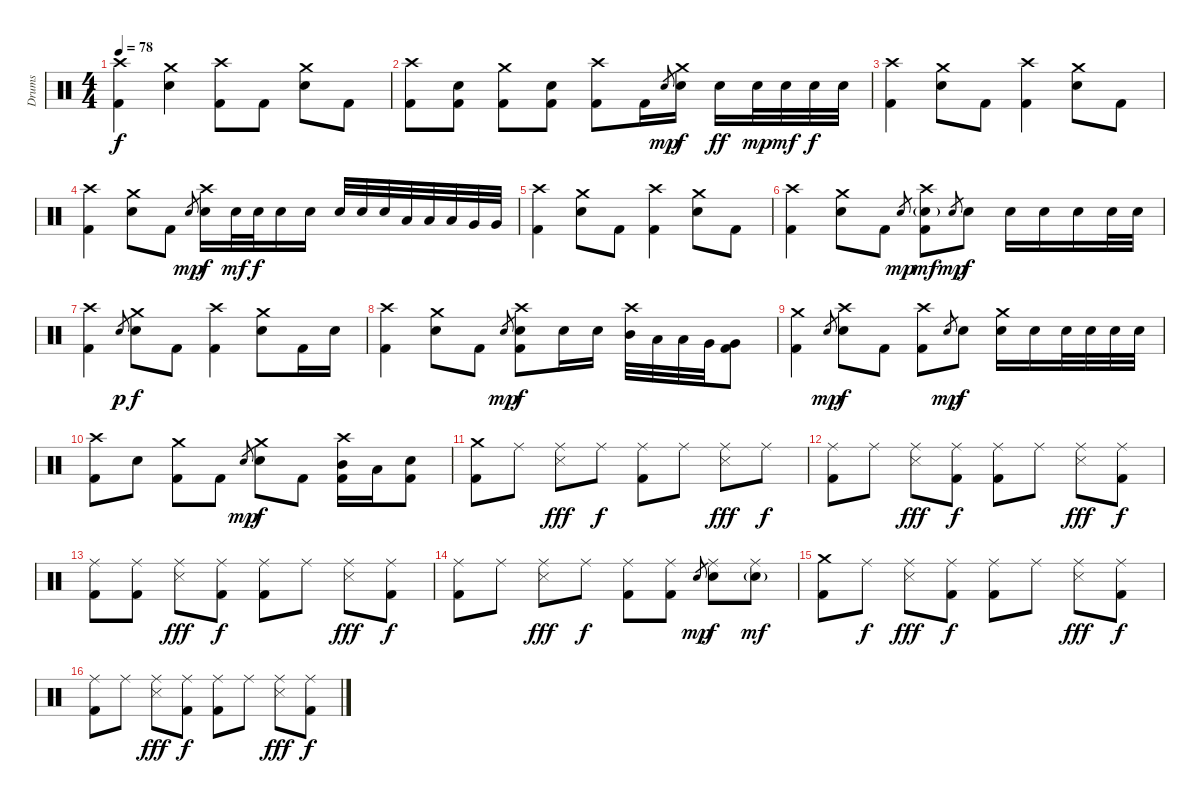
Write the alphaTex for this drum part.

\track ("Drums" "Drums") {instrument percussion}
\staff {score}
\articulation defaults
\ts (4 4)
\tempo 78
\clef neutral
\ks c
("Crash high (hit)" "Kick (hit) 2").4{dy f} ("Crash medium (hit)" "Electric Snare (hit)").4 ("Crash high (hit)" "Kick (hit) 2").8 "Kick (hit) 2".8 ("Crash medium (hit)" "Electric Snare (hit)").8 "Kick (hit) 2".8 |
("Crash high (hit)" "Kick (hit) 2").8 ("Electric Snare (hit)" "Kick (hit) 2").8 ("Crash medium (hit)" "Kick (hit) 2").8 ("Electric Snare (hit)" "Kick (hit) 2").8 ("Crash high (hit)" "Kick (hit) 2").8 "Kick (hit) 2".16 "Electric Snare (hit)".8{gr dy mp} ("Crash medium (hit)" "Electric Snare (hit)").16{dy f} "Electric Snare (hit)".16{dy ff} "Electric Snare (hit)".32{dy mp} "Electric Snare (hit)".32{dy mf} "Electric Snare (hit)".32{dy f} "Electric Snare (hit)".32 |
("Crash high (hit)" "Kick (hit) 2").4 ("Crash medium (hit)" "Electric Snare (hit)").8 "Kick (hit) 2".8 ("Crash high (hit)" "Kick (hit) 2").4 ("Crash medium (hit)" "Electric Snare (hit)").8 "Kick (hit) 2".8 |
("Crash high (hit)" "Kick (hit) 2").4 ("Crash medium (hit)" "Electric Snare (hit)").8 "Kick (hit) 2".8 "Electric Snare (hit)".8{gr dy mp} ("Crash high (hit)" "Electric Snare (hit)").16{dy f} "Electric Snare (hit)".32{dy mf} "Electric Snare (hit)".32{dy f} "Electric Snare (hit)".16 "Electric Snare (hit)".16 "Electric Snare (hit)".32 "Electric Snare (hit)".32 "Electric Snare (hit)".32 "Low Tom (hit)".32 "Low Tom (hit)".32 "Low Tom (hit)".32 "Very Low Tom (hit)".32 "Very Low Tom (hit)".32 |
("Crash high (hit)" "Kick (hit) 2").4 ("Crash medium (hit)" "Electric Snare (hit)").8 "Kick (hit) 2".8 ("Crash high (hit)" "Kick (hit) 2").4 ("Crash medium (hit)" "Electric Snare (hit)").8 "Kick (hit) 2".8 |
("Crash high (hit)" "Kick (hit) 2").4 ("Crash medium (hit)" "Electric Snare (hit)").8 "Kick (hit) 2".8 "Electric Snare (hit)".8{gr dy mp} ("Crash high (hit)" "Electric Snare (hit)"{g} "Kick (hit) 2").8{dy mf} "Electric Snare (hit)".8{gr dy mp} "Electric Snare (hit)".8{dy f} "Electric Snare (hit)".16 "Electric Snare (hit)".16 "Electric Snare (hit)".16 "Electric Snare (hit)".32 "Electric Snare (hit)".32 |
("Crash high (hit)" "Kick (hit) 2").4 "Electric Snare (hit)".8{gr dy p} ("Crash medium (hit)" "Electric Snare (hit)").8{dy f} "Kick (hit) 2".8 ("Crash high (hit)" "Kick (hit) 2").4 ("Crash medium (hit)" "Electric Snare (hit)").8 "Kick (hit) 2".16 "Electric Snare (hit)".16 |
("Crash high (hit)" "Kick (hit) 2").4 ("Crash medium (hit)" "Electric Snare (hit)").8 "Kick (hit) 2".8 "Electric Snare (hit)".8{gr dy mp} ("Crash high (hit)" "Electric Snare (hit)" "Kick (hit) 2").8{dy f} "Electric Snare (hit)".16 "Electric Snare (hit)".16 ("Crash high (hit)" "Mid Tom (hit)").32 "Low Tom (hit)".32 "Low Tom (hit)".32 "Very Low Tom (hit)".32 ("Very Low Tom (hit)" "Kick (hit) 2").8 |
("Crash medium (hit)" "Kick (hit) 2").4 "Electric Snare (hit)".8{gr dy mp} ("Crash high (hit)" "Electric Snare (hit)").8{dy f} "Kick (hit) 2".8 ("Crash high (hit)" "Kick (hit) 2").8 "Electric Snare (hit)".8{gr dy mp} "Electric Snare (hit)".8{dy f} ("Crash medium (hit)" "Electric Snare (hit)").16 "Electric Snare (hit)".16 "Electric Snare (hit)".32 "Electric Snare (hit)".32 "Electric Snare (hit)".32 "Electric Snare (hit)".32 |
("Crash high (hit)" "Kick (hit) 2").8 "Electric Snare (hit)".8 ("Crash medium (hit)" "Kick (hit) 2").8 "Kick (hit) 2".8 "Electric Snare (hit)".8{gr dy mp} ("Crash medium (hit)" "Electric Snare (hit)").8{dy f} "Kick (hit) 2".8 ("Crash high (hit)" "Mid Tom (hit)" "Kick (hit) 2").16 "Low Tom (hit)".16 ("Electric Snare (hit)" "Kick (hit) 2").8 |
("Crash medium (hit)" "Kick (hit) 2").8{volume 8} "Ride (middle)".8 ("Ride (middle)" "Metronome (hit)").8{dy fff} "Ride (middle)".8{dy f} ("Ride (middle)" "Kick (hit) 2").8 "Ride (middle)".8 ("Ride (middle)" "Metronome (hit)").8{dy fff} "Ride (middle)".8{dy f} |
("Ride (middle)" "Kick (hit) 2").8 "Ride (middle)".8 ("Ride (middle)" "Metronome (hit)").8{dy fff} ("Ride (middle)" "Kick (hit) 2").8{dy f} ("Ride (middle)" "Kick (hit) 2").8 "Ride (middle)".8 ("Ride (middle)" "Metronome (hit)").8{dy fff} ("Ride (middle)" "Kick (hit) 2").8{dy f} |
("Ride (middle)" "Kick (hit) 2").8 ("Ride (middle)" "Kick (hit) 2").8 ("Ride (middle)" "Metronome (hit)").8{dy fff} ("Ride (middle)" "Kick (hit) 2").8{dy f} ("Ride (middle)" "Kick (hit) 2").8 "Ride (middle)".8 ("Ride (middle)" "Metronome (hit)").8{dy fff} ("Ride (middle)" "Kick (hit) 2").8{dy f} |
("Ride (middle)" "Kick (hit) 2").8 "Ride (middle)".8 ("Ride (middle)" "Metronome (hit)").8{dy fff} "Ride (middle)".8{dy f} ("Ride (middle)" "Kick (hit) 2").8 ("Ride (middle)" "Kick (hit) 2").8 "Electric Snare (hit)".8{gr dy mp} ("Ride (middle)" "Electric Snare (hit)").8{dy f} ("Ride (middle)" "Electric Snare (hit)"{g}).8{dy mf} |
("Crash medium (hit)" "Kick (hit) 2").8 "Ride (middle)".8{dy f} ("Ride (middle)" "Metronome (hit)").8{dy fff} ("Ride (middle)" "Kick (hit) 2").8{dy f} ("Ride (middle)" "Kick (hit) 2").8 "Ride (middle)".8 ("Ride (middle)" "Metronome (hit)").8{dy fff} ("Ride (middle)" "Kick (hit) 2").8{dy f} |
("Ride (middle)" "Kick (hit) 2").8 "Ride (middle)".8 ("Ride (middle)" "Metronome (hit)").8{dy fff} ("Ride (middle)" "Kick (hit) 2").8{dy f} ("Ride (middle)" "Kick (hit) 2").8 "Ride (middle)".8 ("Ride (middle)" "Metronome (hit)").8{dy fff} ("Ride (middle)" "Kick (hit) 2").8{dy f}
